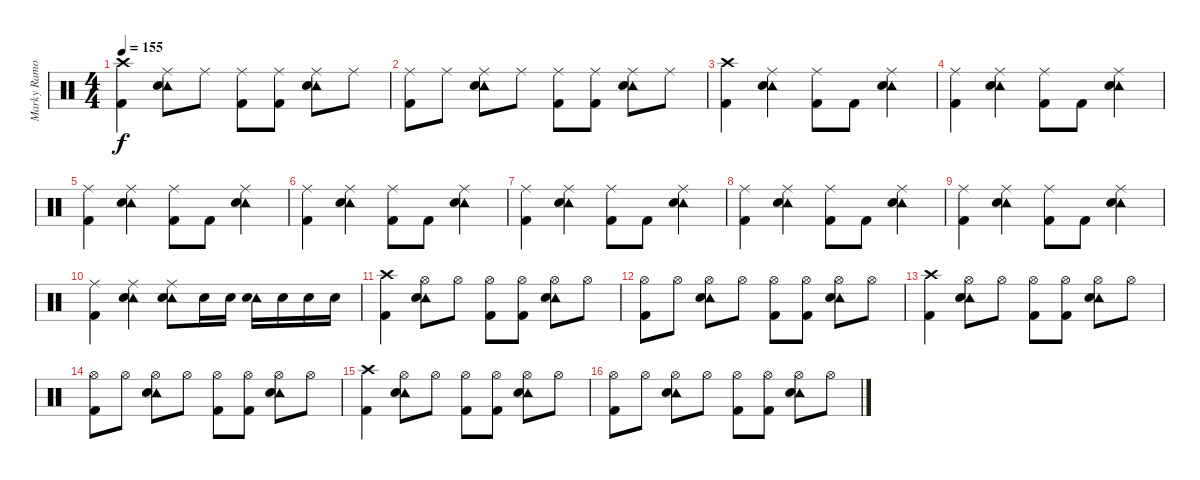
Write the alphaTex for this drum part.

\track ("Marky Ramone" "Marky Ramo") {instrument percussion}
\staff {score}
\articulation defaults
\ts (4 4)
\tempo 155
\clef neutral
\ks c
("Kick (hit) 2" "Crash high (hit)").4{dy f} ("Tambourine (hit)" "Electric Snare (hit)" "Ride (middle)").8 "Ride (middle)".8 ("Kick (hit) 2" "Ride (middle)").8 ("Kick (hit) 2" "Ride (middle)").8 ("Tambourine (hit)" "Electric Snare (hit)" "Ride (middle)").8 "Ride (middle)".8 |
("Kick (hit) 2" "Ride (middle)").8 "Ride (middle)".8 ("Tambourine (hit)" "Electric Snare (hit)" "Ride (middle)").8 "Ride (middle)".8 ("Kick (hit) 2" "Ride (middle)").8 ("Kick (hit) 2" "Ride (middle)").8 ("Tambourine (hit)" "Electric Snare (hit)" "Ride (middle)").8 "Ride (middle)".8 |
("Kick (hit) 2" "Crash high (hit)").4 ("Tambourine (hit)" "Electric Snare (hit)" "Ride (middle)").4 ("Kick (hit) 2" "Ride (middle)").8 "Kick (hit) 2".8 ("Tambourine (hit)" "Electric Snare (hit)" "Ride (middle)").4 |
("Kick (hit) 2" "Ride (middle)").4 ("Tambourine (hit)" "Electric Snare (hit)" "Ride (middle)").4 ("Kick (hit) 2" "Ride (middle)").8 "Kick (hit) 2".8 ("Tambourine (hit)" "Electric Snare (hit)" "Ride (middle)").4 |
("Kick (hit) 2" "Ride (middle)").4 ("Tambourine (hit)" "Electric Snare (hit)" "Ride (middle)").4 ("Kick (hit) 2" "Ride (middle)").8 "Kick (hit) 2".8 ("Tambourine (hit)" "Electric Snare (hit)" "Ride (middle)").4 |
("Kick (hit) 2" "Ride (middle)").4 ("Tambourine (hit)" "Electric Snare (hit)" "Ride (middle)").4 ("Kick (hit) 2" "Ride (middle)").8 "Kick (hit) 2".8 ("Tambourine (hit)" "Electric Snare (hit)" "Ride (middle)").4 |
("Kick (hit) 2" "Ride (middle)").4 ("Tambourine (hit)" "Electric Snare (hit)" "Ride (middle)").4 ("Kick (hit) 2" "Ride (middle)").8 "Kick (hit) 2".8 ("Tambourine (hit)" "Electric Snare (hit)" "Ride (middle)").4 |
("Kick (hit) 2" "Ride (middle)").4 ("Tambourine (hit)" "Electric Snare (hit)" "Ride (middle)").4 ("Kick (hit) 2" "Ride (middle)").8 "Kick (hit) 2".8 ("Tambourine (hit)" "Electric Snare (hit)" "Ride (middle)").4 |
("Kick (hit) 2" "Ride (middle)").4 ("Tambourine (hit)" "Electric Snare (hit)" "Ride (middle)").4 ("Kick (hit) 2" "Ride (middle)").8 "Kick (hit) 2".8 ("Tambourine (hit)" "Electric Snare (hit)" "Ride (middle)").4 |
("Kick (hit) 2" "Ride (middle)").4 ("Tambourine (hit)" "Electric Snare (hit)" "Ride (middle)").4 ("Tambourine (hit)" "Electric Snare (hit)" "Ride (middle)").8 "Electric Snare (hit)".16 "Electric Snare (hit)".16 ("Tambourine (hit)" "Electric Snare (hit)").16 "Electric Snare (hit)".16 "Electric Snare (hit)".16 "Electric Snare (hit)".16 |
("Kick (hit) 2" "Crash high (hit)").4 ("Tambourine (hit)" "Electric Snare (hit)" "Hi-Hat (open)").8 "Hi-Hat (open)".8 ("Kick (hit) 2" "Hi-Hat (open)").8 ("Kick (hit) 2" "Hi-Hat (open)").8 ("Tambourine (hit)" "Electric Snare (hit)" "Hi-Hat (open)").8 "Hi-Hat (open)".8 |
("Kick (hit) 2" "Hi-Hat (open)").8 "Hi-Hat (open)".8 ("Tambourine (hit)" "Electric Snare (hit)" "Hi-Hat (open)").8 "Hi-Hat (open)".8 ("Kick (hit) 2" "Hi-Hat (open)").8 ("Kick (hit) 2" "Hi-Hat (open)").8 ("Tambourine (hit)" "Electric Snare (hit)" "Hi-Hat (open)").8 "Hi-Hat (open)".8 |
("Kick (hit) 2" "Crash high (hit)").4 ("Tambourine (hit)" "Electric Snare (hit)" "Hi-Hat (open)").8 "Hi-Hat (open)".8 ("Kick (hit) 2" "Hi-Hat (open)").8 ("Kick (hit) 2" "Hi-Hat (open)").8 ("Tambourine (hit)" "Electric Snare (hit)" "Hi-Hat (open)").8 "Hi-Hat (open)".8 |
("Kick (hit) 2" "Hi-Hat (open)").8 "Hi-Hat (open)".8 ("Tambourine (hit)" "Electric Snare (hit)" "Hi-Hat (open)").8 "Hi-Hat (open)".8 ("Kick (hit) 2" "Hi-Hat (open)").8 ("Kick (hit) 2" "Hi-Hat (open)").8 ("Tambourine (hit)" "Electric Snare (hit)" "Hi-Hat (open)").8 "Hi-Hat (open)".8 |
("Kick (hit) 2" "Crash high (hit)").4 ("Tambourine (hit)" "Electric Snare (hit)" "Hi-Hat (open)").8 "Hi-Hat (open)".8 ("Kick (hit) 2" "Hi-Hat (open)").8 ("Kick (hit) 2" "Hi-Hat (open)").8 ("Tambourine (hit)" "Electric Snare (hit)" "Hi-Hat (open)").8 "Hi-Hat (open)".8 |
("Kick (hit) 2" "Hi-Hat (open)").8 "Hi-Hat (open)".8 ("Tambourine (hit)" "Electric Snare (hit)" "Hi-Hat (open)").8 "Hi-Hat (open)".8 ("Kick (hit) 2" "Hi-Hat (open)").8 ("Kick (hit) 2" "Hi-Hat (open)").8 ("Tambourine (hit)" "Electric Snare (hit)" "Hi-Hat (open)").8 "Hi-Hat (open)".8
